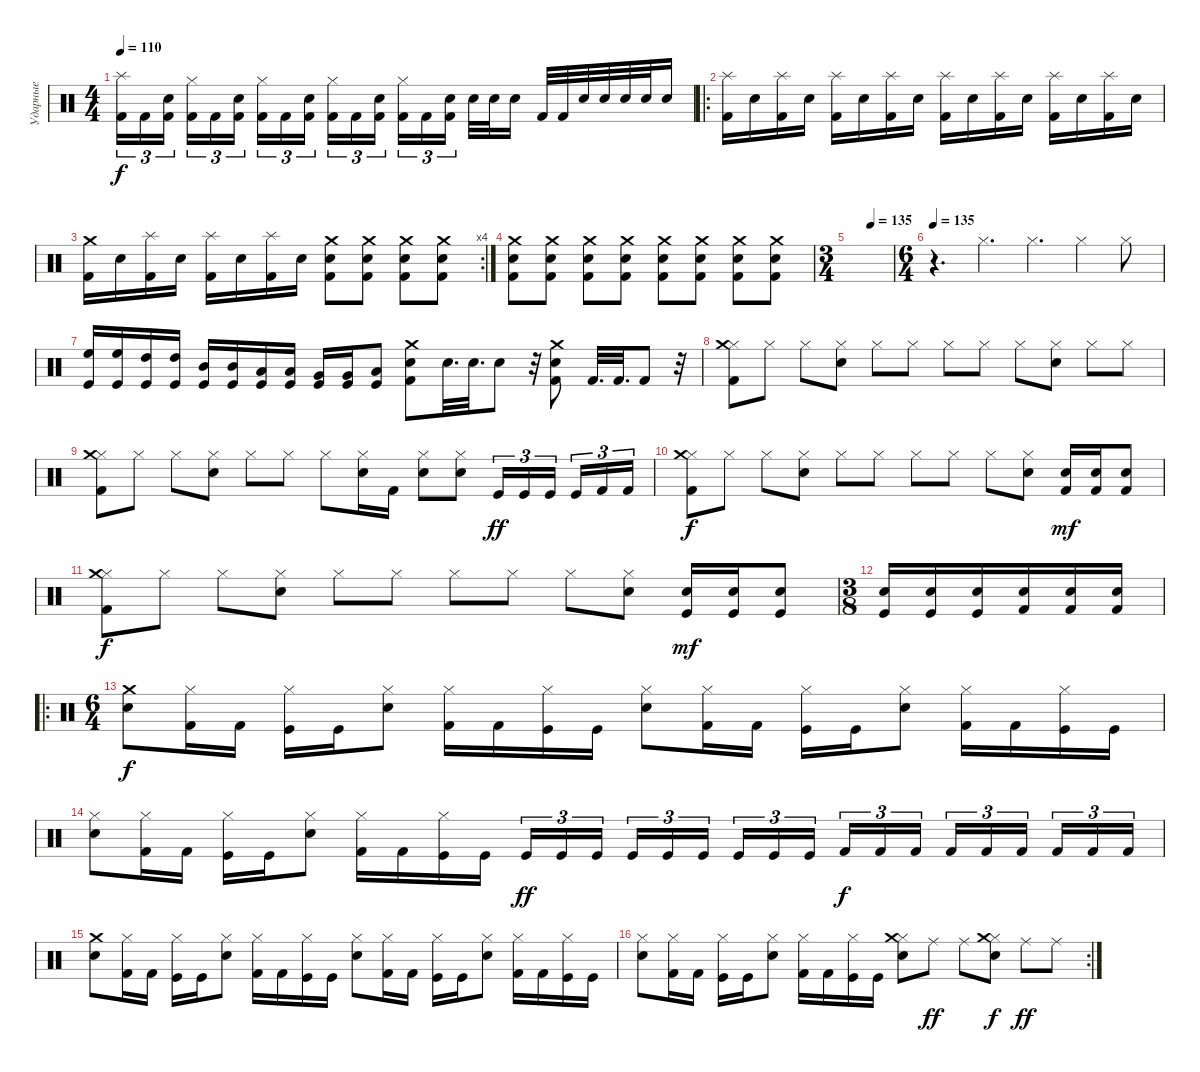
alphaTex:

\track ("Ударные" "Ударные") {instrument percussion}
\staff {score}
\articulation defaults
\ts (4 4)
\tempo 110
\clef neutral
\ks c
("Splash (hit)" "Kick (hit) 2").16{tu (3 2) dy f} "Kick (hit) 2".16{tu (3 2)} ("Electric Snare (hit)" "Kick (hit) 2").16{tu (3 2) beam splitsecondary} ("Hi-Hat (closed)" "Kick (hit) 2").16{tu (3 2)} "Kick (hit) 2".16{tu (3 2)} ("Electric Snare (hit)" "Kick (hit) 2").16{tu (3 2)} ("Hi-Hat (closed)" "Kick (hit) 2").16{tu (3 2)} "Kick (hit) 2".16{tu (3 2)} ("Electric Snare (hit)" "Kick (hit) 2").16{tu (3 2) beam splitsecondary} ("Hi-Hat (closed)" "Kick (hit) 2").16{tu (3 2)} "Kick (hit) 2".16{tu (3 2)} ("Electric Snare (hit)" "Kick (hit) 2").16{tu (3 2)} ("Hi-Hat (closed)" "Kick (hit) 2").16{tu (3 2)} "Kick (hit) 2".16{tu (3 2)} ("Electric Snare (hit)" "Kick (hit) 2").16{tu (3 2) beam splitsecondary} "Electric Snare (hit)".32 "Electric Snare (hit)".32 "Snare (hit) 2".16 "Kick (hit) 2".32 "Kick (hit) 2".32 "Electric Snare (hit)".32 "Electric Snare (hit)".32 "Electric Snare (hit)".32 "Electric Snare (hit)".32 "Snare (hit) 2".16 |
\ro
("Splash (hit)" "Kick (hit) 2").16 "Electric Snare (hit)".16 ("Splash (hit)" "Kick (hit) 2").16 "Electric Snare (hit)".16 ("Splash (hit)" "Kick (hit) 2").16 "Electric Snare (hit)".16 ("Splash (hit)" "Kick (hit) 2").16 "Electric Snare (hit)".16 ("Splash (hit)" "Kick (hit) 2").16 "Electric Snare (hit)".16 ("Splash (hit)" "Kick (hit) 2").16 "Electric Snare (hit)".16 ("Splash (hit)" "Kick (hit) 2").16 "Electric Snare (hit)".16 ("Splash (hit)" "Kick (hit) 2").16 "Electric Snare (hit)".16 |
\rc 4
("Crash medium (hit)" "Kick (hit) 2").16 "Electric Snare (hit)".16 ("Splash (hit)" "Kick (hit) 2").16 "Electric Snare (hit)".16 ("Splash (hit)" "Kick (hit) 2").16 "Electric Snare (hit)".16 ("Splash (hit)" "Kick (hit) 2").16 "Electric Snare (hit)".16 ("Crash medium (hit)" "Electric Snare (hit)" "Kick (hit) 2").8 ("Crash medium (hit)" "Electric Snare (hit)" "Kick (hit) 2").8 ("Crash medium (hit)" "Electric Snare (hit)" "Kick (hit) 2").8 ("Crash medium (hit)" "Electric Snare (hit)" "Kick (hit) 2").8 |
("Crash medium (hit)" "Electric Snare (hit)" "Kick (hit) 2").8 ("Crash medium (hit)" "Electric Snare (hit)" "Kick (hit) 2").8 ("Crash medium (hit)" "Electric Snare (hit)" "Kick (hit) 2").8 ("Crash medium (hit)" "Electric Snare (hit)" "Kick (hit) 2").8 ("Crash medium (hit)" "Electric Snare (hit)" "Kick (hit) 2").8 ("Crash medium (hit)" "Electric Snare (hit)" "Kick (hit) 2").8 ("Crash medium (hit)" "Electric Snare (hit)" "Kick (hit) 2").8 ("Crash medium (hit)" "Electric Snare (hit)" "Kick (hit) 2").8 |
\ts (3 4)
\tempo (135 0.5)
|
\ts (6 4)
\tempo 135
r.4{d} "Hi-Hat (closed)".4{d} "Hi-Hat (closed)".4{d} "Hi-Hat (closed)".4 "Hi-Hat (closed)".8 |
("Kick (hit)" "High Floor Tom (hit)").16 ("Kick (hit)" "High Floor Tom (hit)").16 ("Kick (hit)" "High Tom (hit)").16 ("Kick (hit)" "High Tom (hit)").16 ("Kick (hit)" "Mid Tom (hit)").16 ("Kick (hit)" "Mid Tom (hit)").16 ("Kick (hit)" "Low Tom (hit)").16 ("Kick (hit)" "Low Tom (hit)").16 ("Kick (hit)" "Very Low Tom (hit)").16 ("Kick (hit)" "Very Low Tom (hit)").16 ("Kick (hit)" "Low Floor Tom (hit)").8 ("Crash medium (hit)" "Electric Snare (hit)" "Kick (hit) 2").8 "Electric Snare (hit)".32{d} "Electric Snare (hit)".32{d} "Electric Snare (hit)".8 r.32 ("Crash medium (hit)" "Electric Snare (hit)" "Kick (hit) 2").8 "Kick (hit) 2".32{d} "Kick (hit) 2".32{d} "Kick (hit) 2".8 r.32 |
("Hi-Hat (closed)" "Crash medium (hit)" "Kick (hit) 2").8 "Hi-Hat (closed)".8 "Hi-Hat (closed)".8 ("Hi-Hat (closed)" "Electric Snare (hit)").8 "Hi-Hat (closed)".8 "Hi-Hat (closed)".8 "Hi-Hat (closed)".8 "Hi-Hat (closed)".8 "Hi-Hat (closed)".8 ("Hi-Hat (closed)" "Electric Snare (hit)").8 "Hi-Hat (closed)".8 "Hi-Hat (closed)".8 |
("Hi-Hat (closed)" "Crash medium (hit)" "Kick (hit) 2").8 "Hi-Hat (closed)".8 "Hi-Hat (closed)".8 ("Hi-Hat (closed)" "Electric Snare (hit)").8 "Hi-Hat (closed)".8 "Hi-Hat (closed)".8 "Hi-Hat (closed)".8 ("Hi-Hat (closed)" "Electric Snare (hit)").16 "Kick (hit) 2".16 ("Hi-Hat (closed)" "Electric Snare (hit)").8 ("Hi-Hat (closed)" "Electric Snare (hit)").8 "Kick (hit)".16{tu (3 2) dy ff} "Kick (hit)".16{tu (3 2)} "Kick (hit)".16{tu (3 2) beam splitsecondary} "Kick (hit)".16{tu (3 2)} "Kick (hit) 2".16{tu (3 2)} "Kick (hit) 2".16{tu (3 2)} |
("Hi-Hat (closed)" "Crash medium (hit)" "Kick (hit) 2").8{dy f} "Hi-Hat (closed)".8 "Hi-Hat (closed)".8 ("Hi-Hat (closed)" "Electric Snare (hit)").8 "Hi-Hat (closed)".8 "Hi-Hat (closed)".8 "Hi-Hat (closed)".8 "Hi-Hat (closed)".8 "Hi-Hat (closed)".8 ("Hi-Hat (closed)" "Electric Snare (hit)").8 ("Snare (hit) 2" "Kick (hit) 2").16{dy mf} ("Snare (hit) 2" "Kick (hit) 2").16 ("Snare (hit) 2" "Kick (hit) 2").8 |
("Hi-Hat (closed)" "Crash medium (hit)" "Kick (hit) 2").8{dy f} "Hi-Hat (closed)".8 "Hi-Hat (closed)".8 ("Hi-Hat (closed)" "Electric Snare (hit)").8 "Hi-Hat (closed)".8 "Hi-Hat (closed)".8 "Hi-Hat (closed)".8 "Hi-Hat (closed)".8 "Hi-Hat (closed)".8 ("Hi-Hat (closed)" "Electric Snare (hit)").8 ("Snare (hit) 2" "Kick (hit)").16{dy mf} ("Snare (hit) 2" "Kick (hit)").16 ("Snare (hit) 2" "Kick (hit)").8 |
\ts (3 8)
("Snare (hit) 2" "Kick (hit)").16 ("Snare (hit) 2" "Kick (hit)").16 ("Snare (hit) 2" "Kick (hit)").16 ("Snare (hit) 2" "Kick (hit) 2").16 ("Snare (hit) 2" "Kick (hit) 2").16 ("Snare (hit) 2" "Kick (hit) 2").16 |
\ro
\ts (6 4)
("Crash medium (hit)" "Electric Snare (hit)").8{dy f} ("Hi-Hat (closed)" "Kick (hit) 2").16 "Kick (hit) 2".16 ("Hi-Hat (closed)" "Kick (hit)").16 "Kick (hit)".16 ("Hi-Hat (closed)" "Electric Snare (hit)").8 ("Hi-Hat (closed)" "Kick (hit) 2").16 "Kick (hit) 2".16 ("Hi-Hat (closed)" "Kick (hit)").16 "Kick (hit)".16 ("Hi-Hat (closed)" "Electric Snare (hit)").8 ("Hi-Hat (closed)" "Kick (hit) 2").16 "Kick (hit) 2".16 ("Hi-Hat (closed)" "Kick (hit)").16 "Kick (hit)".16 ("Hi-Hat (closed)" "Electric Snare (hit)").8 ("Hi-Hat (closed)" "Kick (hit) 2").16 "Kick (hit) 2".16 ("Hi-Hat (closed)" "Kick (hit)").16 "Kick (hit)".16 |
("Hi-Hat (closed)" "Electric Snare (hit)").8 ("Hi-Hat (closed)" "Kick (hit) 2").16 "Kick (hit) 2".16 ("Hi-Hat (closed)" "Kick (hit)").16 "Kick (hit)".16 ("Hi-Hat (closed)" "Electric Snare (hit)").8 ("Hi-Hat (closed)" "Kick (hit) 2").16 "Kick (hit) 2".16 ("Hi-Hat (closed)" "Kick (hit)").16 "Kick (hit)".16 "Kick (hit)".16{tu (3 2) dy ff} "Kick (hit)".16{tu (3 2)} "Kick (hit)".16{tu (3 2) beam splitsecondary} "Kick (hit)".16{tu (3 2)} "Kick (hit)".16{tu (3 2)} "Kick (hit)".16{tu (3 2) beam splitsecondary} "Kick (hit)".16{tu (3 2)} "Kick (hit)".16{tu (3 2)} "Kick (hit)".16{tu (3 2) beam splitsecondary} "Kick (hit) 2".16{tu (3 2) dy f} "Kick (hit) 2".16{tu (3 2)} "Kick (hit) 2".16{tu (3 2) beam splitsecondary} "Kick (hit) 2".16{tu (3 2)} "Kick (hit) 2".16{tu (3 2)} "Kick (hit) 2".16{tu (3 2) beam splitsecondary} "Kick (hit) 2".16{tu (3 2)} "Kick (hit) 2".16{tu (3 2)} "Kick (hit) 2".16{tu (3 2)} |
("Crash medium (hit)" "Electric Snare (hit)").8 ("Hi-Hat (closed)" "Kick (hit) 2").16 "Kick (hit) 2".16 ("Hi-Hat (closed)" "Kick (hit)").16 "Kick (hit)".16 ("Hi-Hat (closed)" "Electric Snare (hit)").8 ("Hi-Hat (closed)" "Kick (hit) 2").16 "Kick (hit) 2".16 ("Hi-Hat (closed)" "Kick (hit)").16 "Kick (hit)".16 ("Hi-Hat (closed)" "Electric Snare (hit)").8 ("Hi-Hat (closed)" "Kick (hit) 2").16 "Kick (hit) 2".16 ("Hi-Hat (closed)" "Kick (hit)").16 "Kick (hit)".16 ("Hi-Hat (closed)" "Electric Snare (hit)").8 ("Hi-Hat (closed)" "Kick (hit) 2").16 "Kick (hit) 2".16 ("Hi-Hat (closed)" "Kick (hit)").16 "Kick (hit)".16 |
\rc 2
("Hi-Hat (closed)" "Electric Snare (hit)").8 ("Hi-Hat (closed)" "Kick (hit) 2").16 "Kick (hit) 2".16 ("Hi-Hat (closed)" "Kick (hit)").16 "Kick (hit)".16 ("Hi-Hat (closed)" "Electric Snare (hit)").8 ("Hi-Hat (closed)" "Kick (hit) 2").16 "Kick (hit) 2".16 ("Hi-Hat (closed)" "Kick (hit)").16 "Kick (hit)".16 ("Hi-Hat (closed)" "Crash medium (hit)" "Snare (hit) 2").8 "Ride (middle)".8{dy ff} "Ride (middle)".8 ("Hi-Hat (closed)" "Crash medium (hit)" "Snare (hit) 2").8{dy f} "Ride (middle)".8{dy ff} "Ride (middle)".8
